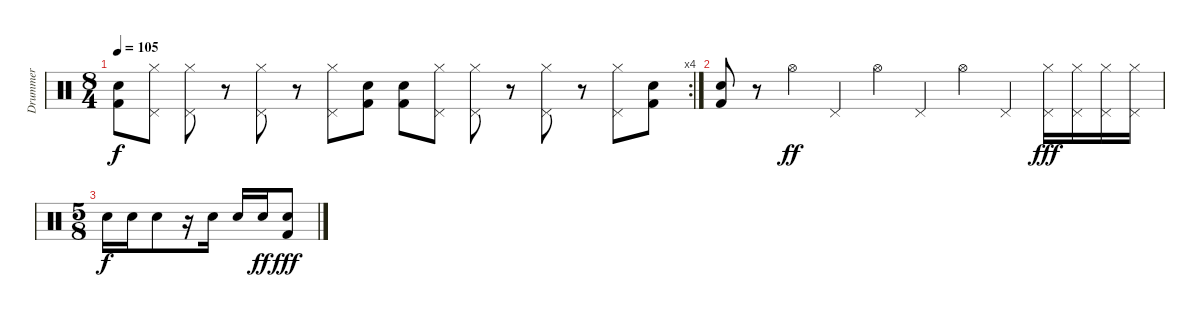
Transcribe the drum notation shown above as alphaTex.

\track ("Drummer" "Drummer") {instrument percussion}
\staff {score}
\articulation defaults
\rc 4
\ts (8 4)
\tempo 105
\clef neutral
\ks c
("Kick (hit) 2" "Electric Snare (hit)").8{dy f} ("Pedal Hi-Hat (hit)" "Hi-Hat (closed)").8 ("Hi-Hat (closed)" "Pedal Hi-Hat (hit)").8 r.8 ("Pedal Hi-Hat (hit)" "Hi-Hat (closed)").8 r.8 ("Pedal Hi-Hat (hit)" "Hi-Hat (closed)").8 ("Kick (hit) 2" "Electric Snare (hit)").8 ("Electric Snare (hit)" "Kick (hit) 2").8 ("Pedal Hi-Hat (hit)" "Hi-Hat (closed)").8 ("Hi-Hat (closed)" "Pedal Hi-Hat (hit)").8 r.8 ("Hi-Hat (closed)" "Pedal Hi-Hat (hit)").8 r.8 ("Hi-Hat (closed)" "Pedal Hi-Hat (hit)").8 ("Electric Snare (hit)" "Kick (hit) 2").8 |
("Electric Snare (hit)" "Kick (hit) 2").8 r.8 "Hi-Hat (open)".4{dy ff} "Pedal Hi-Hat (hit)".4 "Hi-Hat (open)".4 "Pedal Hi-Hat (hit)".4 "Hi-Hat (open)".4 "Pedal Hi-Hat (hit)".4 ("Hi-Hat (closed)" "Pedal Hi-Hat (hit)").16{dy fff} ("Hi-Hat (closed)" "Pedal Hi-Hat (hit)").16 ("Pedal Hi-Hat (hit)" "Hi-Hat (closed)").16 ("Pedal Hi-Hat (hit)" "Hi-Hat (closed)").16 |
\ts (5 8)
"Electric Snare (hit)".16{dy f} "Electric Snare (hit)".16 "Electric Snare (hit)".8 r.16 "Electric Snare (hit)".16 "Electric Snare (hit)".16 "Electric Snare (hit)".16{dy ff} ("Electric Snare (hit)" "Kick (hit) 2").8{dy fff}
